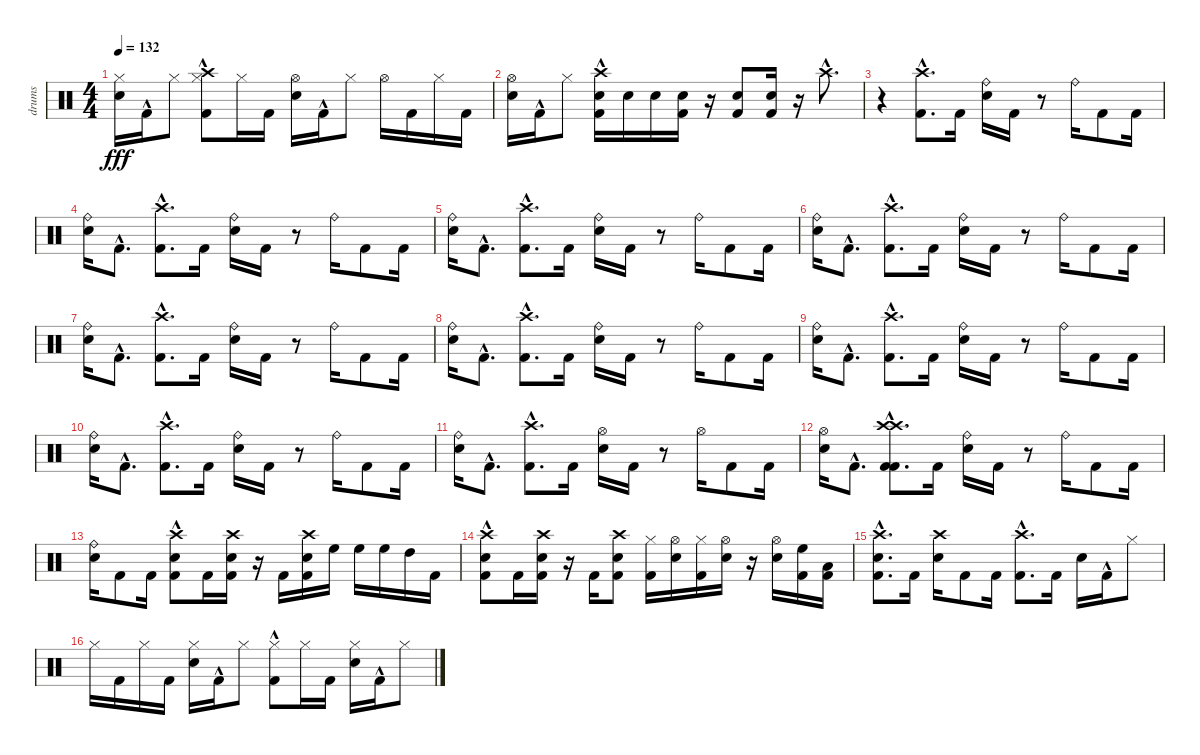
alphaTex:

\track ("drums" "drums") {instrument percussion}
\staff {score}
\articulation defaults
\ts (4 4)
\tempo 132
\clef neutral
\ks c
("Snare (hit) 2" "Hi-Hat (closed)").16{dy fff} "Kick (hit) 2"{hac}.16 "Hi-Hat (closed)".8 ("Kick (hit) 2"{hac} "Crash high (hit)" "Hi-Hat (closed)").8 "Hi-Hat (closed)".16 "Kick (hit) 2".16 ("Snare (hit) 2" "Hi-Hat (open)").16 "Kick (hit) 2"{hac}.16 "Hi-Hat (closed)".8 "Hi-Hat (open)".16 "Kick (hit) 2".16 "Hi-Hat (closed)".16 "Kick (hit) 2".16 |
("Snare (hit) 2" "Hi-Hat (open)").16 "Kick (hit) 2"{hac}.16 "Hi-Hat (closed)".8 ("Kick (hit) 2"{hac} "Snare (hit) 2" "Crash high (hit)").16 "Snare (hit) 2".16 "Snare (hit) 2".16 ("Kick (hit) 2" "Snare (hit) 2").16 r.16 ("Kick (hit) 2" "Snare (hit) 2").8 ("Kick (hit) 2" "Snare (hit) 2").16 r.16 "Crash high (hit)"{hac}.8{d} |
r.4 ("Kick (hit) 2"{hac} "Crash high (hit)").8{d} "Kick (hit) 2".16 ("Snare (hit) 2" "Ride (bell)").16 "Kick (hit) 2".16 r.8 "Ride (bell)".16 "Kick (hit) 2".8 "Kick (hit) 2".16 |
("Snare (hit) 2" "Ride (bell)").16 "Kick (hit) 2"{hac}.8{d} ("Kick (hit) 2"{hac} "Crash high (hit)").8{d} "Kick (hit) 2".16 ("Snare (hit) 2" "Ride (bell)").16 "Kick (hit) 2".16 r.8 "Ride (bell)".16 "Kick (hit) 2".8 "Kick (hit) 2".16 |
("Snare (hit) 2" "Ride (bell)").16 "Kick (hit) 2"{hac}.8{d} ("Kick (hit) 2"{hac} "Crash high (hit)").8{d} "Kick (hit) 2".16 ("Snare (hit) 2" "Ride (bell)").16 "Kick (hit) 2".16 r.8 "Ride (bell)".16 "Kick (hit) 2".8 "Kick (hit) 2".16 |
("Snare (hit) 2" "Ride (bell)").16 "Kick (hit) 2"{hac}.8{d} ("Kick (hit) 2"{hac} "Crash high (hit)").8{d} "Kick (hit) 2".16 ("Snare (hit) 2" "Ride (bell)").16 "Kick (hit) 2".16 r.8 "Ride (bell)".16 "Kick (hit) 2".8 "Kick (hit) 2".16 |
("Snare (hit) 2" "Ride (bell)").16 "Kick (hit) 2"{hac}.8{d} ("Kick (hit) 2"{hac} "Crash high (hit)").8{d} "Kick (hit) 2".16 ("Snare (hit) 2" "Ride (bell)").16 "Kick (hit) 2".16 r.8 "Ride (bell)".16 "Kick (hit) 2".8 "Kick (hit) 2".16 |
("Snare (hit) 2" "Ride (bell)").16 "Kick (hit) 2"{hac}.8{d} ("Kick (hit) 2"{hac} "Crash high (hit)").8{d} "Kick (hit) 2".16 ("Snare (hit) 2" "Ride (bell)").16 "Kick (hit) 2".16 r.8 "Ride (bell)".16 "Kick (hit) 2".8 "Kick (hit) 2".16 |
("Snare (hit) 2" "Ride (bell)").16 "Kick (hit) 2"{hac}.8{d} ("Kick (hit) 2"{hac} "Crash high (hit)").8{d} "Kick (hit) 2".16 ("Snare (hit) 2" "Ride (bell)").16 "Kick (hit) 2".16 r.8 "Ride (bell)".16 "Kick (hit) 2".8 "Kick (hit) 2".16 |
("Snare (hit) 2" "Ride (bell)").16 "Kick (hit) 2"{hac}.8{d} ("Kick (hit) 2"{hac} "Crash high (hit)").8{d} "Kick (hit) 2".16 ("Snare (hit) 2" "Ride (bell)").16 "Kick (hit) 2".16 r.8 "Ride (bell)".16 "Kick (hit) 2".8 "Kick (hit) 2".16 |
("Snare (hit) 2" "Ride (bell)").16 "Kick (hit) 2"{hac}.8{d} ("Kick (hit) 2"{hac} "Crash high (hit)").8{d} "Kick (hit) 2".16 ("Snare (hit) 2" "Hi-Hat (open)").16 "Kick (hit) 2".16 r.8 "Hi-Hat (open)".16 "Kick (hit) 2".8 "Kick (hit) 2".16 |
("Snare (hit) 2" "Hi-Hat (open)").16 "Kick (hit) 2"{hac}.8{d} ("Kick (hit) 2"{hac} "Crash high (hit)" "Kick (hit) 2"{hac} "Crash high (hit)").8{d} "Kick (hit) 2".16 ("Snare (hit) 2" "Ride (bell)").16 "Kick (hit) 2".16 r.8 "Ride (bell)".16 "Kick (hit) 2".8 "Kick (hit) 2".16 |
("Snare (hit) 2" "Ride (bell)").16 "Kick (hit) 2".8 "Kick (hit) 2".16 ("Kick (hit) 2" "Snare (hit) 2"{hac} "Crash high (hit)"{hac}).8 "Kick (hit) 2".16 ("Kick (hit) 2" "Snare (hit) 2" "Crash high (hit)").16 r.16 "Kick (hit) 2".16 ("Kick (hit) 2" "Snare (hit) 2" "Crash high (hit)").16 "High Floor Tom (hit)".16 "High Floor Tom (hit)".16 "High Floor Tom (hit)".16 "High Tom (hit)".16 "Kick (hit) 2".16 |
("Kick (hit) 2" "Snare (hit) 2"{hac} "Crash high (hit)"{hac}).8 "Kick (hit) 2".16 ("Kick (hit) 2" "Snare (hit) 2" "Crash high (hit)").16 r.16 "Kick (hit) 2".16 ("Kick (hit) 2" "Snare (hit) 2" "Crash high (hit)").8 ("Kick (hit) 2" "Hi-Hat (closed)").16 ("Snare (hit) 2" "Hi-Hat (open)").16 ("Kick (hit) 2" "Hi-Hat (closed)").16 ("Snare (hit) 2" "Hi-Hat (open)").16 r.16 ("Snare (hit) 2" "Hi-Hat (open)").16 ("Kick (hit) 2" "High Floor Tom (hit)").16 ("Kick (hit) 2" "Low Tom (hit)").16 |
("Kick (hit) 2"{hac} "Snare (hit) 2" "Crash high (hit)").8{d} "Kick (hit) 2".16 ("Snare (hit) 2" "Crash high (hit)").16 "Kick (hit) 2".8 "Kick (hit) 2".16 ("Kick (hit) 2"{hac} "Crash high (hit)").8{d} "Kick (hit) 2".16 "Snare (hit) 2".16 "Kick (hit) 2"{hac}.16 "Hi-Hat (closed)".8 |
"Hi-Hat (closed)".16 "Kick (hit) 2".16 "Hi-Hat (closed)".16 "Kick (hit) 2".16 ("Snare (hit) 2" "Hi-Hat (closed)").16 "Kick (hit) 2"{hac}.16 "Hi-Hat (closed)".8 ("Kick (hit) 2"{hac} "Hi-Hat (closed)").8 "Hi-Hat (closed)".16 "Kick (hit) 2".16 ("Snare (hit) 2" "Hi-Hat (closed)").16 "Kick (hit) 2"{hac}.16 "Hi-Hat (closed)".8
